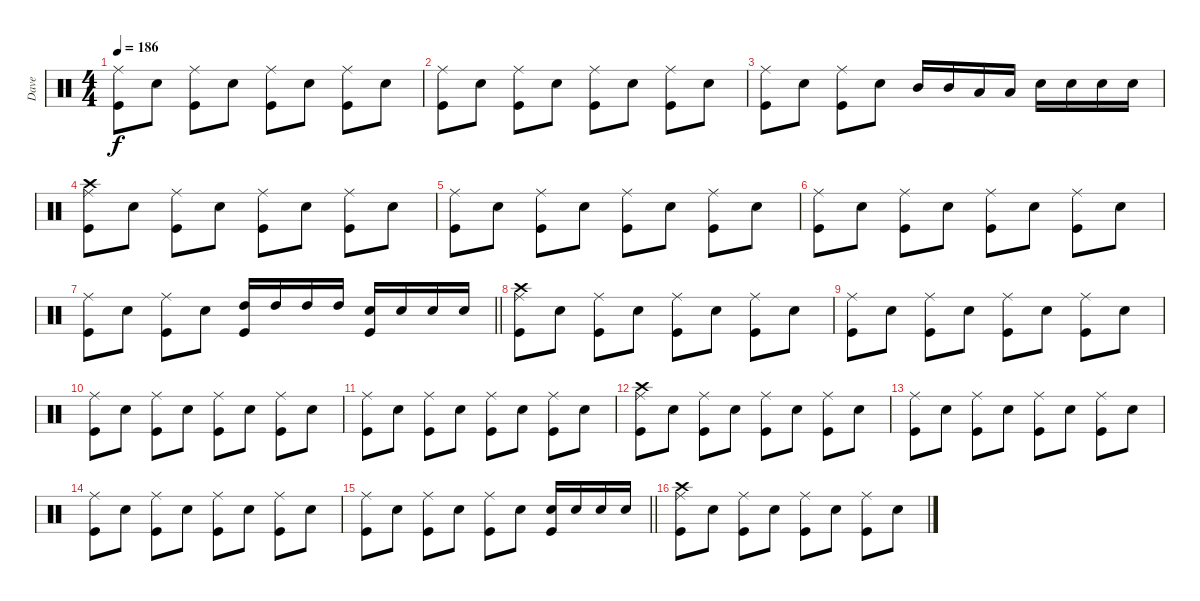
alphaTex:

\track ("Dave" "Dave") {instrument percussion}
\staff {score}
\articulation defaults
\ts (4 4)
\tempo 186
\clef neutral
\ks c
("Ride (middle)" "Kick (hit)").8{dy f} "Snare (hit) 2".8 ("Ride (middle)" "Kick (hit)").8 "Snare (hit) 2".8 ("Ride (middle)" "Kick (hit)").8 "Snare (hit) 2".8 ("Ride (middle)" "Kick (hit)").8 "Snare (hit) 2".8 |
("Ride (middle)" "Kick (hit)").8 "Snare (hit) 2".8 ("Ride (middle)" "Kick (hit)").8 "Snare (hit) 2".8 ("Ride (middle)" "Kick (hit)").8 "Snare (hit) 2".8 ("Ride (middle)" "Kick (hit)").8 "Snare (hit) 2".8 |
("Ride (middle)" "Kick (hit)").8 "Snare (hit) 2".8 ("Ride (middle)" "Kick (hit)").8 "Snare (hit) 2".8 "Mid Tom (hit)".16 "Mid Tom (hit)".16 "Low Tom (hit)".16 "Low Tom (hit)".16 "Snare (hit) 2".16 "Snare (hit) 2".16 "Snare (hit) 2".16 "Snare (hit) 2".16 |
("Crash high (hit)" "Ride (middle)" "Kick (hit)").8 "Snare (hit) 2".8 ("Ride (middle)" "Kick (hit)").8 "Snare (hit) 2".8 ("Ride (middle)" "Kick (hit)").8 "Snare (hit) 2".8 ("Ride (middle)" "Kick (hit)").8 "Snare (hit) 2".8 |
("Ride (middle)" "Kick (hit)").8 "Snare (hit) 2".8 ("Ride (middle)" "Kick (hit)").8 "Snare (hit) 2".8 ("Ride (middle)" "Kick (hit)").8 "Snare (hit) 2".8 ("Ride (middle)" "Kick (hit)").8 "Snare (hit) 2".8 |
("Ride (middle)" "Kick (hit)").8 "Snare (hit) 2".8 ("Ride (middle)" "Kick (hit)").8 "Snare (hit) 2".8 ("Ride (middle)" "Kick (hit)").8 "Snare (hit) 2".8 ("Ride (middle)" "Kick (hit)").8 "Snare (hit) 2".8 |
\barLineRight lightlight
("Ride (middle)" "Kick (hit)").8 "Snare (hit) 2".8 ("Ride (middle)" "Kick (hit)").8 "Snare (hit) 2".8 ("Kick (hit)" "High Tom (hit)").16 "High Tom (hit)".16 "High Tom (hit)".16 "High Tom (hit)".16 ("Kick (hit)" "Snare (hit) 2").16 "Snare (hit) 2".16 "Snare (hit) 2".16 "Snare (hit) 2".16 |
("Crash high (hit)" "Ride (middle)" "Kick (hit)").8 "Snare (hit) 2".8 ("Ride (middle)" "Kick (hit)").8 "Snare (hit) 2".8 ("Ride (middle)" "Kick (hit)").8 "Snare (hit) 2".8 ("Ride (middle)" "Kick (hit)").8 "Snare (hit) 2".8 |
("Ride (middle)" "Kick (hit)").8 "Snare (hit) 2".8 ("Ride (middle)" "Kick (hit)").8 "Snare (hit) 2".8 ("Ride (middle)" "Kick (hit)").8 "Snare (hit) 2".8 ("Ride (middle)" "Kick (hit)").8 "Snare (hit) 2".8 |
("Ride (middle)" "Kick (hit)").8 "Snare (hit) 2".8 ("Ride (middle)" "Kick (hit)").8 "Snare (hit) 2".8 ("Ride (middle)" "Kick (hit)").8 "Snare (hit) 2".8 ("Ride (middle)" "Kick (hit)").8 "Snare (hit) 2".8 |
("Ride (middle)" "Kick (hit)").8 "Snare (hit) 2".8 ("Ride (middle)" "Kick (hit)").8 "Snare (hit) 2".8 ("Ride (middle)" "Kick (hit)").8 "Snare (hit) 2".8 ("Ride (middle)" "Kick (hit)").8 "Snare (hit) 2".8 |
("Crash high (hit)" "Ride (middle)" "Kick (hit)").8 "Snare (hit) 2".8 ("Ride (middle)" "Kick (hit)").8 "Snare (hit) 2".8 ("Ride (middle)" "Kick (hit)").8 "Snare (hit) 2".8 ("Ride (middle)" "Kick (hit)").8 "Snare (hit) 2".8 |
("Ride (middle)" "Kick (hit)").8 "Snare (hit) 2".8 ("Ride (middle)" "Kick (hit)").8 "Snare (hit) 2".8 ("Ride (middle)" "Kick (hit)").8 "Snare (hit) 2".8 ("Ride (middle)" "Kick (hit)").8 "Snare (hit) 2".8 |
("Ride (middle)" "Kick (hit)").8 "Snare (hit) 2".8 ("Ride (middle)" "Kick (hit)").8 "Snare (hit) 2".8 ("Ride (middle)" "Kick (hit)").8 "Snare (hit) 2".8 ("Ride (middle)" "Kick (hit)").8 "Snare (hit) 2".8 |
\barLineRight lightlight
("Ride (middle)" "Kick (hit)").8 "Snare (hit) 2".8 ("Ride (middle)" "Kick (hit)").8 "Snare (hit) 2".8 ("Ride (middle)" "Kick (hit)").8 "Snare (hit) 2".8 ("Snare (hit) 2" "Kick (hit)").16 "Snare (hit) 2".16 "Snare (hit) 2".16 "Snare (hit) 2".16 |
("Crash high (hit)" "Ride (middle)" "Kick (hit)").8 "Snare (hit) 2".8 ("Ride (middle)" "Kick (hit)").8 "Snare (hit) 2".8 ("Ride (middle)" "Kick (hit)").8 "Snare (hit) 2".8 ("Ride (middle)" "Kick (hit)").8 "Snare (hit) 2".8
